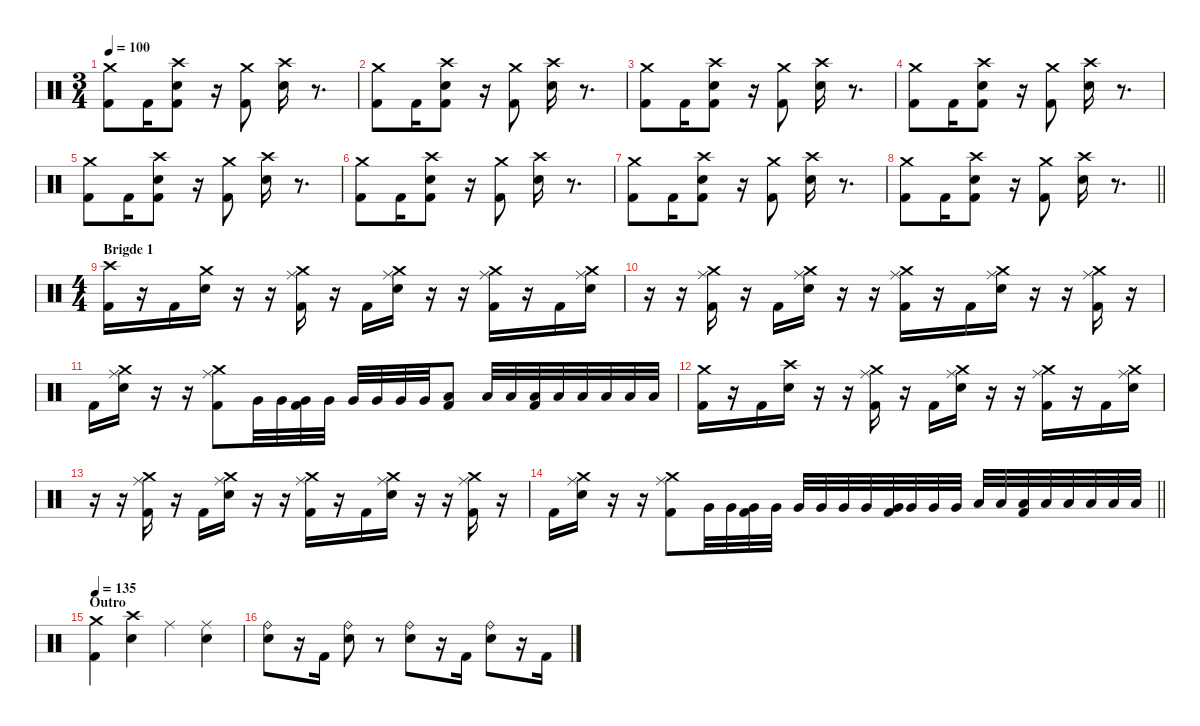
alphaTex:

\defaultSystemsLayout 4
\hideDynamics
\bracketExtendMode nobrackets
\singleTrackTrackNamePolicy hidden
\multiTrackTrackNamePolicy hidden
\firstSystemTrackNameMode fullname
\firstSystemTrackNameOrientation horizontal
\otherSystemsTrackNameOrientation horizontal
\track ("Bill Ward - Drums" "drm.") {instrument percussion}
\staff {score}
\articulation defaults
\ts (3 4)
\tempo 100
\clef neutral
\ks c
("Crash medium (hit)" "Kick (hit) 2").8{dy f} "Kick (hit) 2".16 ("Crash high (hit)" "Snare (hit) 2" "Kick (hit) 2").8 r.16 ("Crash medium (hit)" "Kick (hit) 2").8 ("Crash high (hit)" "Snare (hit) 2").16 r.8{d} |
("Crash medium (hit)" "Kick (hit) 2").8 "Kick (hit) 2".16 ("Crash high (hit)" "Snare (hit) 2" "Kick (hit) 2").8 r.16 ("Crash medium (hit)" "Kick (hit) 2").8 ("Crash high (hit)" "Snare (hit) 2").16 r.8{d} |
("Crash medium (hit)" "Kick (hit) 2").8 "Kick (hit) 2".16 ("Crash high (hit)" "Snare (hit) 2" "Kick (hit) 2").8 r.16 ("Crash medium (hit)" "Kick (hit) 2").8 ("Crash high (hit)" "Snare (hit) 2").16 r.8{d} |
("Crash medium (hit)" "Kick (hit) 2").8 "Kick (hit) 2".16 ("Crash high (hit)" "Snare (hit) 2" "Kick (hit) 2").8 r.16 ("Crash medium (hit)" "Kick (hit) 2").8 ("Crash high (hit)" "Snare (hit) 2").16 r.8{d} |
("Crash medium (hit)" "Kick (hit) 2").8 "Kick (hit) 2".16 ("Crash high (hit)" "Snare (hit) 2" "Kick (hit) 2").8 r.16 ("Crash medium (hit)" "Kick (hit) 2").8 ("Crash high (hit)" "Snare (hit) 2").16 r.8{d} |
("Crash medium (hit)" "Kick (hit) 2").8 "Kick (hit) 2".16 ("Crash high (hit)" "Snare (hit) 2" "Kick (hit) 2").8 r.16 ("Crash medium (hit)" "Kick (hit) 2").8 ("Crash high (hit)" "Snare (hit) 2").16 r.8{d} |
("Crash medium (hit)" "Kick (hit) 2").8 "Kick (hit) 2".16 ("Crash high (hit)" "Snare (hit) 2" "Kick (hit) 2").8 r.16 ("Crash medium (hit)" "Kick (hit) 2").8 ("Crash high (hit)" "Snare (hit) 2").16 r.8{d} |
\barLineRight lightlight
("Crash medium (hit)" "Kick (hit) 2").8 "Kick (hit) 2".16 ("Crash high (hit)" "Snare (hit) 2" "Kick (hit) 2").8 r.16 ("Crash medium (hit)" "Kick (hit) 2").8 ("Crash high (hit)" "Snare (hit) 2").16 r.8{d} |
\ts (4 4)
\beaming (8 2 2 2 2)
\section ("" "Brigde 1")
("Crash high (hit)" "Kick (hit) 2").16 r.16 "Kick (hit) 2".16 ("Crash medium (hit)" "Snare (hit) 2").16 r.16 r.16 ("Ride (middle)" "Crash medium (hit)" "Kick (hit) 2").16{dy fff} r.16 "Kick (hit) 2".16{dy f} ("Ride (middle)" "Crash medium (hit)" "Snare (hit) 2").16{dy fff} r.16 r.16 ("Ride (middle)" "Crash medium (hit)" "Kick (hit) 2").16 r.16 "Kick (hit) 2".16{dy f} ("Ride (middle)" "Crash medium (hit)" "Snare (hit) 2").16{dy fff} |
r.16 r.16 ("Ride (middle)" "Crash medium (hit)" "Kick (hit) 2").16 r.16 "Kick (hit) 2".16{dy f} ("Ride (middle)" "Crash medium (hit)" "Snare (hit) 2").16{dy fff} r.16 r.16 ("Ride (middle)" "Crash medium (hit)" "Kick (hit) 2").16 r.16 "Kick (hit) 2".16{dy f} ("Ride (middle)" "Crash medium (hit)" "Snare (hit) 2").16{dy fff} r.16 r.16 ("Ride (middle)" "Crash medium (hit)" "Kick (hit) 2").16 r.16 |
"Kick (hit) 2".16{dy f} ("Ride (middle)" "Crash medium (hit)" "Snare (hit) 2").16{dy fff} r.16 r.16 ("Ride (middle)" "Crash medium (hit)" "Kick (hit) 2").8{dy f} "Very Low Tom (hit)".32 "Very Low Tom (hit)".32 ("Very Low Tom (hit)" "Kick (hit) 2").32 "Very Low Tom (hit)".32 "Very Low Tom (hit)".32 "Very Low Tom (hit)".32 "Very Low Tom (hit)".32 "Very Low Tom (hit)".32 ("Low Floor Tom (hit)" "Kick (hit) 2").8 "Low Floor Tom (hit)".32{dy mf} "Low Floor Tom (hit)".32 ("Low Floor Tom (hit)" "Kick (hit) 2").32 "Low Floor Tom (hit)".32 "Low Floor Tom (hit)".32 "Low Floor Tom (hit)".32 "Low Floor Tom (hit)".32 "Low Floor Tom (hit)".32 |
("Crash medium (hit)" "Kick (hit) 2").16{dy f} r.16 "Kick (hit) 2".16 ("Crash high (hit)" "Snare (hit) 2").16 r.16 r.16 ("Ride (middle)" "Crash medium (hit)" "Kick (hit) 2").16{dy fff} r.16 "Kick (hit) 2".16{dy f} ("Ride (middle)" "Crash medium (hit)" "Snare (hit) 2").16{dy fff} r.16 r.16 ("Ride (middle)" "Crash medium (hit)" "Kick (hit) 2").16 r.16 "Kick (hit) 2".16{dy f} ("Ride (middle)" "Crash medium (hit)" "Snare (hit) 2").16{dy fff} |
r.16 r.16 ("Ride (middle)" "Crash medium (hit)" "Kick (hit) 2").16 r.16 "Kick (hit) 2".16{dy f} ("Ride (middle)" "Crash medium (hit)" "Snare (hit) 2").16{dy fff} r.16 r.16 ("Ride (middle)" "Crash medium (hit)" "Kick (hit) 2").16 r.16 "Kick (hit) 2".16{dy f} ("Ride (middle)" "Crash medium (hit)" "Snare (hit) 2").16{dy fff} r.16 r.16 ("Ride (middle)" "Crash medium (hit)" "Kick (hit) 2").16 r.16 |
\barLineRight lightlight "Kick (hit) 2".16{dy f}
("Ride (middle)" "Crash medium (hit)" "Snare (hit) 2").16{dy fff} r.16 r.16 ("Ride (middle)" "Crash medium (hit)" "Kick (hit) 2").8 "Very Low Tom (hit)".32{dy f} "Very Low Tom (hit)".32 ("Very Low Tom (hit)" "Kick (hit) 2").32 "Very Low Tom (hit)".32 "Very Low Tom (hit)".32 "Very Low Tom (hit)".32 "Very Low Tom (hit)".32 "Very Low Tom (hit)".32 ("Very Low Tom (hit)" "Kick (hit) 2").32 "Very Low Tom (hit)".32 "Very Low Tom (hit)".32 "Very Low Tom (hit)".32 "Low Floor Tom (hit)".32{dy mf} "Low Floor Tom (hit)".32 ("Low Floor Tom (hit)" "Kick (hit) 2").32 "Low Floor Tom (hit)".32 "Low Floor Tom (hit)".32 "Low Floor Tom (hit)".32 "Low Floor Tom (hit)".32 "Low Floor Tom (hit)".32 |
\section ("" "Outro")
\tempo 135
("Crash medium (hit)" "Kick (hit) 2").4{dy f} ("Crash high (hit)" "Snare (hit) 2").4 "Ride (middle)".4 ("Ride (middle)" "Snare (hit) 2").4 |
("Ride (bell)" "Snare (hit) 2").8 r.16 "Kick (hit) 2".16{dy mf} ("Ride (bell)" "Snare (hit) 2").8{dy f} r.8 ("Ride (bell)" "Snare (hit) 2").8 r.16 "Kick (hit) 2".16{dy mf} ("Ride (bell)" "Snare (hit) 2").8{dy f} r.16 "Kick (hit) 2".16{dy mf}
